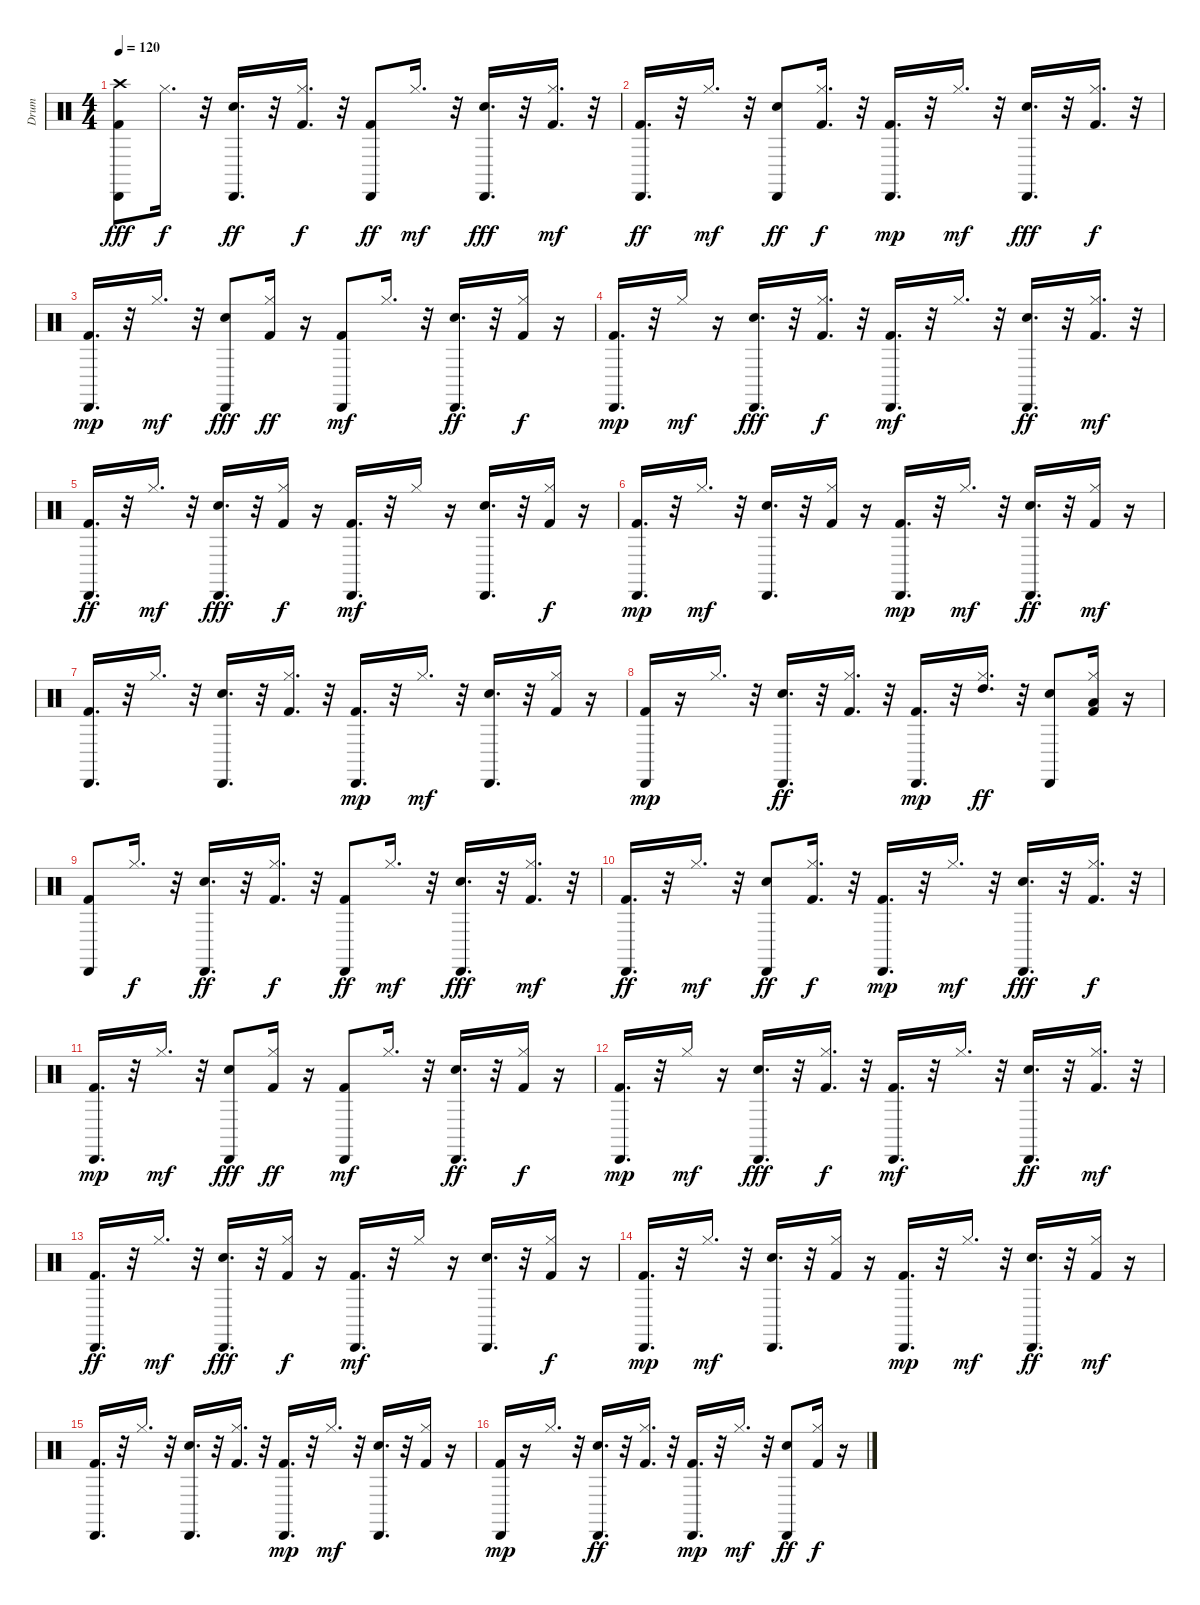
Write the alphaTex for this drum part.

\track ("Drum" "Drum") {instrument percussion}
\staff {score}
\articulation defaults
\ts (4 4)
\tempo 120
\clef neutral
\ks c
("Kick (hit) 2" "Cabasa (hit)" "Crash high (hit)").8{dy fff} "Hi-Hat (closed)".16{d dy f} r.32 ("Snare (hit) 2" "Cabasa (hit)").16{d dy ff} r.32 ("Hi-Hat (closed)" "Kick (hit) 2").16{d dy f} r.32 ("Cabasa (hit)" "Kick (hit) 2").8{dy ff} "Hi-Hat (closed)".16{d dy mf} r.32 ("Cabasa (hit)" "Snare (hit) 2").16{d dy fff} r.32 ("Hi-Hat (closed)" "Kick (hit) 2").16{d dy mf} r.32 |
("Cabasa (hit)" "Kick (hit) 2").16{d dy ff} r.32 "Hi-Hat (closed)".16{d dy mf} r.32 ("Snare (hit) 2" "Cabasa (hit)").8{dy ff} ("Kick (hit) 2" "Hi-Hat (closed)").16{d dy f} r.32 ("Kick (hit) 2" "Cabasa (hit)").16{d dy mp} r.32 "Hi-Hat (closed)".16{d dy mf} r.32 ("Snare (hit) 2" "Cabasa (hit)").16{d dy fff} r.32 ("Hi-Hat (closed)" "Kick (hit) 2").16{d dy f} r.32 |
("Kick (hit) 2" "Cabasa (hit)").16{d dy mp} r.32 "Hi-Hat (closed)".16{d dy mf} r.32 ("Snare (hit) 2" "Cabasa (hit)").8{dy fff} ("Kick (hit) 2" "Hi-Hat (closed)").16{dy ff} r.16 ("Kick (hit) 2" "Cabasa (hit)").8{dy mf} "Hi-Hat (closed)".16{d} r.32 ("Snare (hit) 2" "Cabasa (hit)").16{d dy ff} r.32 ("Kick (hit) 2" "Hi-Hat (closed)").16{dy f} r.16 |
("Cabasa (hit)" "Kick (hit) 2").16{d dy mp} r.32 "Hi-Hat (closed)".16{dy mf} r.16 ("Snare (hit) 2" "Cabasa (hit)").16{d dy fff} r.32 ("Hi-Hat (closed)" "Kick (hit) 2").16{d dy f} r.32 ("Kick (hit) 2" "Cabasa (hit)").16{d dy mf} r.32 "Hi-Hat (closed)".16{d} r.32 ("Cabasa (hit)" "Snare (hit) 2").16{d dy ff} r.32 ("Kick (hit) 2" "Hi-Hat (closed)").16{d dy mf} r.32 |
("Cabasa (hit)" "Kick (hit) 2").16{d dy ff} r.32 "Hi-Hat (closed)".16{d dy mf} r.32 ("Snare (hit) 2" "Cabasa (hit)").16{d dy fff} r.32 ("Kick (hit) 2" "Hi-Hat (closed)").16{dy f} r.16 ("Kick (hit) 2" "Cabasa (hit)").16{d dy mf} r.32 "Hi-Hat (closed)".16 r.16 ("Snare (hit) 2" "Cabasa (hit)").16{d} r.32 ("Kick (hit) 2" "Hi-Hat (closed)").16{dy f} r.16 |
("Kick (hit) 2" "Cabasa (hit)").16{d dy mp} r.32 "Hi-Hat (closed)".16{d dy mf} r.32 ("Snare (hit) 2" "Cabasa (hit)").16{d} r.32 ("Hi-Hat (closed)" "Kick (hit) 2").16 r.16 ("Kick (hit) 2" "Cabasa (hit)").16{d dy mp} r.32 "Hi-Hat (closed)".16{d dy mf} r.32 ("Snare (hit) 2" "Cabasa (hit)").16{d dy ff} r.32 ("Kick (hit) 2" "Hi-Hat (closed)").16{dy mf} r.16 |
("Kick (hit) 2" "Cabasa (hit)").16{d} r.32 "Hi-Hat (closed)".16{d} r.32 ("Snare (hit) 2" "Cabasa (hit)").16{d} r.32 ("Kick (hit) 2" "Hi-Hat (closed)").16{d} r.32 ("Kick (hit) 2" "Cabasa (hit)").16{d dy mp} r.32 "Hi-Hat (closed)".16{d dy mf} r.32 ("Snare (hit) 2" "Cabasa (hit)").16{d} r.32 ("Kick (hit) 2" "Hi-Hat (closed)").16 r.16 |
("Kick (hit) 2" "Cabasa (hit)").16{dy mp} r.16 "Hi-Hat (closed)".16{d} r.32 ("Snare (hit) 2" "Cabasa (hit)").16{d dy ff} r.32 ("Hi-Hat (closed)" "Kick (hit) 2").16{d} r.32 ("Kick (hit) 2" "Cabasa (hit)").16{d dy mp} r.32 ("Hi-Hat (closed)" "High Tom (hit)").16{d dy ff} r.32 ("Cabasa (hit)" "Snare (hit) 2").8 ("Hi-Hat (closed)" "Kick (hit) 2" "Low Tom (hit)").16 r.16 |
("Kick (hit) 2" "Cabasa (hit)").8 "Hi-Hat (closed)".16{d dy f} r.32 ("Snare (hit) 2" "Cabasa (hit)").16{d dy ff} r.32 ("Hi-Hat (closed)" "Kick (hit) 2").16{d dy f} r.32 ("Cabasa (hit)" "Kick (hit) 2").8{dy ff} "Hi-Hat (closed)".16{d dy mf} r.32 ("Cabasa (hit)" "Snare (hit) 2").16{d dy fff} r.32 ("Hi-Hat (closed)" "Kick (hit) 2").16{d dy mf} r.32 |
("Cabasa (hit)" "Kick (hit) 2").16{d dy ff} r.32 "Hi-Hat (closed)".16{d dy mf} r.32 ("Snare (hit) 2" "Cabasa (hit)").8{dy ff} ("Kick (hit) 2" "Hi-Hat (closed)").16{d dy f} r.32 ("Kick (hit) 2" "Cabasa (hit)").16{d dy mp} r.32 "Hi-Hat (closed)".16{d dy mf} r.32 ("Snare (hit) 2" "Cabasa (hit)").16{d dy fff} r.32 ("Hi-Hat (closed)" "Kick (hit) 2").16{d dy f} r.32 |
("Kick (hit) 2" "Cabasa (hit)").16{d dy mp} r.32 "Hi-Hat (closed)".16{d dy mf} r.32 ("Snare (hit) 2" "Cabasa (hit)").8{dy fff} ("Kick (hit) 2" "Hi-Hat (closed)").16{dy ff} r.16 ("Kick (hit) 2" "Cabasa (hit)").8{dy mf} "Hi-Hat (closed)".16{d} r.32 ("Snare (hit) 2" "Cabasa (hit)").16{d dy ff} r.32 ("Kick (hit) 2" "Hi-Hat (closed)").16{dy f} r.16 |
("Cabasa (hit)" "Kick (hit) 2").16{d dy mp} r.32 "Hi-Hat (closed)".16{dy mf} r.16 ("Snare (hit) 2" "Cabasa (hit)").16{d dy fff} r.32 ("Hi-Hat (closed)" "Kick (hit) 2").16{d dy f} r.32 ("Kick (hit) 2" "Cabasa (hit)").16{d dy mf} r.32 "Hi-Hat (closed)".16{d} r.32 ("Cabasa (hit)" "Snare (hit) 2").16{d dy ff} r.32 ("Kick (hit) 2" "Hi-Hat (closed)").16{d dy mf} r.32 |
("Cabasa (hit)" "Kick (hit) 2").16{d dy ff} r.32 "Hi-Hat (closed)".16{d dy mf} r.32 ("Snare (hit) 2" "Cabasa (hit)").16{d dy fff} r.32 ("Kick (hit) 2" "Hi-Hat (closed)").16{dy f} r.16 ("Kick (hit) 2" "Cabasa (hit)").16{d dy mf} r.32 "Hi-Hat (closed)".16 r.16 ("Snare (hit) 2" "Cabasa (hit)").16{d} r.32 ("Kick (hit) 2" "Hi-Hat (closed)").16{dy f} r.16 |
("Kick (hit) 2" "Cabasa (hit)").16{d dy mp} r.32 "Hi-Hat (closed)".16{d dy mf} r.32 ("Snare (hit) 2" "Cabasa (hit)").16{d} r.32 ("Hi-Hat (closed)" "Kick (hit) 2").16 r.16 ("Kick (hit) 2" "Cabasa (hit)").16{d dy mp} r.32 "Hi-Hat (closed)".16{d dy mf} r.32 ("Snare (hit) 2" "Cabasa (hit)").16{d dy ff} r.32 ("Kick (hit) 2" "Hi-Hat (closed)").16{dy mf} r.16 |
("Kick (hit) 2" "Cabasa (hit)").16{d} r.32 "Hi-Hat (closed)".16{d} r.32 ("Snare (hit) 2" "Cabasa (hit)").16{d} r.32 ("Kick (hit) 2" "Hi-Hat (closed)").16{d} r.32 ("Kick (hit) 2" "Cabasa (hit)").16{d dy mp} r.32 "Hi-Hat (closed)".16{d dy mf} r.32 ("Snare (hit) 2" "Cabasa (hit)").16{d} r.32 ("Kick (hit) 2" "Hi-Hat (closed)").16 r.16 |
("Kick (hit) 2" "Cabasa (hit)").16{dy mp} r.16 "Hi-Hat (closed)".16{d} r.32 ("Snare (hit) 2" "Cabasa (hit)").16{d dy ff} r.32 ("Hi-Hat (closed)" "Kick (hit) 2").16{d} r.32 ("Kick (hit) 2" "Cabasa (hit)").16{d dy mp} r.32 "Hi-Hat (closed)".16{d dy mf} r.32 ("Cabasa (hit)" "Snare (hit) 2").8{dy ff} ("Kick (hit) 2" "Hi-Hat (closed)").16{dy f} r.16
